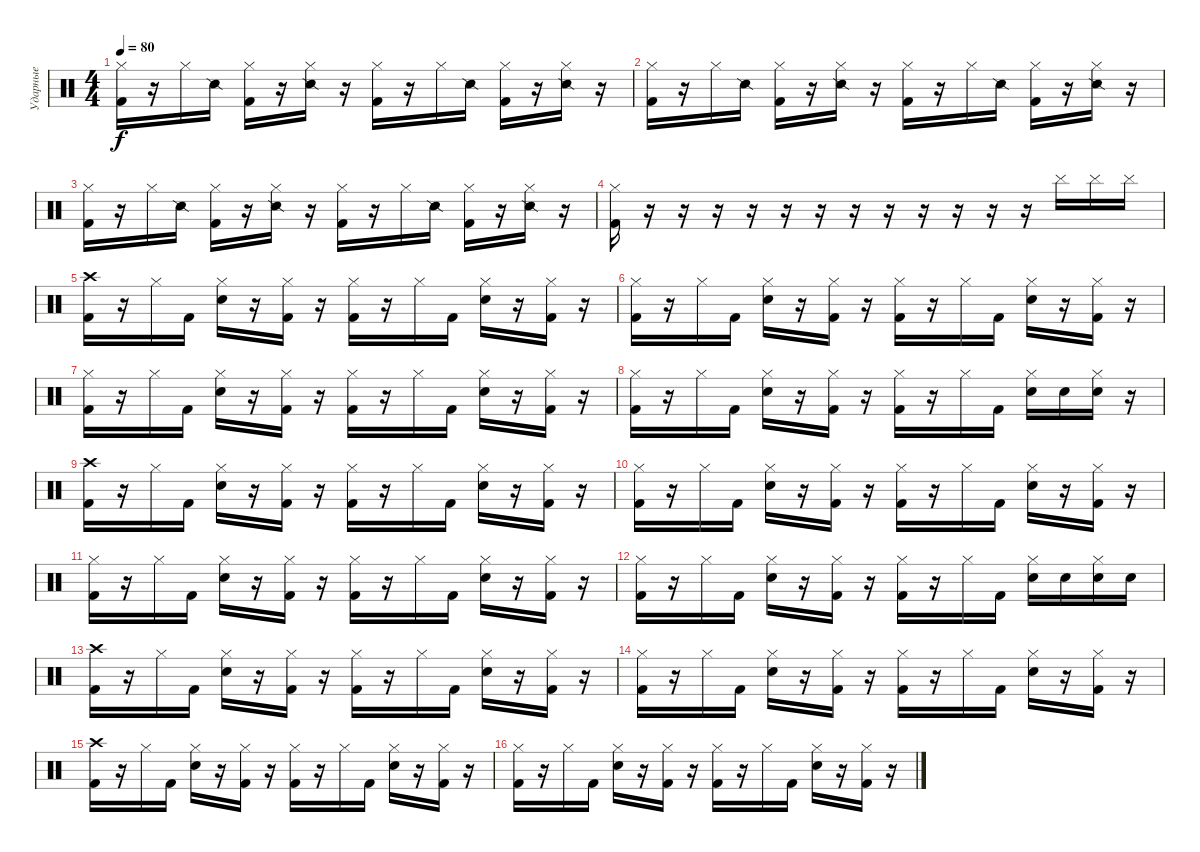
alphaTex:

\track ("Ударные" "Ударные") {instrument percussion}
\staff {score}
\articulation defaults
\ts (4 4)
\tempo 80
\clef neutral
\ks c
("Kick (hit) 2" "Hi-Hat (closed)").16{dy f} r.16 "Hi-Hat (closed)".16 "Snare (side stick) 2".16 ("Kick (hit) 2" "Hi-Hat (closed)").16 r.16 ("Snare (side stick) 2" "Hi-Hat (closed)").16 r.16 ("Kick (hit) 2" "Hi-Hat (closed)").16 r.16 "Hi-Hat (closed)".16 "Snare (side stick) 2".16 ("Kick (hit) 2" "Hi-Hat (closed)").16 r.16 ("Snare (side stick) 2" "Hi-Hat (closed)").16 r.16 |
("Kick (hit) 2" "Hi-Hat (closed)").16 r.16 "Hi-Hat (closed)".16 "Snare (side stick) 2".16 ("Kick (hit) 2" "Hi-Hat (closed)").16 r.16 ("Snare (side stick) 2" "Hi-Hat (closed)").16 r.16 ("Kick (hit) 2" "Hi-Hat (closed)").16 r.16 "Hi-Hat (closed)".16 "Snare (side stick) 2".16 ("Kick (hit) 2" "Hi-Hat (closed)").16 r.16 ("Snare (side stick) 2" "Hi-Hat (closed)").16 r.16 |
("Kick (hit) 2" "Hi-Hat (closed)").16 r.16 "Hi-Hat (closed)".16 "Snare (side stick) 2".16 ("Kick (hit) 2" "Hi-Hat (closed)").16 r.16 ("Snare (side stick) 2" "Hi-Hat (closed)").16 r.16 ("Kick (hit) 2" "Hi-Hat (closed)").16 r.16 "Hi-Hat (closed)".16 "Snare (side stick) 2".16 ("Kick (hit) 2" "Hi-Hat (closed)").16 r.16 ("Snare (side stick) 2" "Hi-Hat (closed)").16 r.16 |
("Kick (hit) 2" "Hi-Hat (closed)").16 r.16 r.16 r.16 r.16 r.16 r.16 r.16 r.16 r.16 r.16 r.16 r.16 "Cymbal (hit)".16 "Cymbal (hit)".16 "Cymbal (hit)".16 |
("Kick (hit) 2" "Crash high (hit)").16 r.16 "Hi-Hat (closed)".16 "Kick (hit) 2".16 ("Electric Snare (hit)" "Hi-Hat (closed)").16 r.16 ("Kick (hit) 2" "Hi-Hat (closed)").16 r.16 ("Kick (hit) 2" "Hi-Hat (closed)").16 r.16 "Hi-Hat (closed)".16 "Kick (hit) 2".16 ("Electric Snare (hit)" "Hi-Hat (closed)").16 r.16 ("Kick (hit) 2" "Hi-Hat (closed)").16 r.16 |
("Kick (hit) 2" "Hi-Hat (closed)").16 r.16 "Hi-Hat (closed)".16 "Kick (hit) 2".16 ("Electric Snare (hit)" "Hi-Hat (closed)").16 r.16 ("Kick (hit) 2" "Hi-Hat (closed)").16 r.16 ("Kick (hit) 2" "Hi-Hat (closed)").16 r.16 "Hi-Hat (closed)".16 "Kick (hit) 2".16 ("Electric Snare (hit)" "Hi-Hat (closed)").16 r.16 ("Kick (hit) 2" "Hi-Hat (closed)").16 r.16 |
("Kick (hit) 2" "Hi-Hat (closed)").16 r.16 "Hi-Hat (closed)".16 "Kick (hit) 2".16 ("Electric Snare (hit)" "Hi-Hat (closed)").16 r.16 ("Kick (hit) 2" "Hi-Hat (closed)").16 r.16 ("Kick (hit) 2" "Hi-Hat (closed)").16 r.16 "Hi-Hat (closed)".16 "Kick (hit) 2".16 ("Electric Snare (hit)" "Hi-Hat (closed)").16 r.16 ("Kick (hit) 2" "Hi-Hat (closed)").16 r.16 |
("Kick (hit) 2" "Hi-Hat (closed)").16 r.16 "Hi-Hat (closed)".16 "Kick (hit) 2".16 ("Electric Snare (hit)" "Hi-Hat (closed)").16 r.16 ("Kick (hit) 2" "Hi-Hat (closed)").16 r.16 ("Kick (hit) 2" "Hi-Hat (closed)").16 r.16 "Hi-Hat (closed)".16 "Kick (hit) 2".16 ("Electric Snare (hit)" "Hi-Hat (closed)").16 "Electric Snare (hit)".16 ("Electric Snare (hit)" "Hi-Hat (closed)").16 r.16 |
("Kick (hit) 2" "Crash high (hit)").16 r.16 "Hi-Hat (closed)".16 "Kick (hit) 2".16 ("Electric Snare (hit)" "Hi-Hat (closed)").16 r.16 ("Kick (hit) 2" "Hi-Hat (closed)").16 r.16 ("Kick (hit) 2" "Hi-Hat (closed)").16 r.16 "Hi-Hat (closed)".16 "Kick (hit) 2".16 ("Electric Snare (hit)" "Hi-Hat (closed)").16 r.16 ("Kick (hit) 2" "Hi-Hat (closed)").16 r.16 |
("Kick (hit) 2" "Hi-Hat (closed)").16 r.16 "Hi-Hat (closed)".16 "Kick (hit) 2".16 ("Electric Snare (hit)" "Hi-Hat (closed)").16 r.16 ("Kick (hit) 2" "Hi-Hat (closed)").16 r.16 ("Kick (hit) 2" "Hi-Hat (closed)").16 r.16 "Hi-Hat (closed)".16 "Kick (hit) 2".16 ("Electric Snare (hit)" "Hi-Hat (closed)").16 r.16 ("Kick (hit) 2" "Hi-Hat (closed)").16 r.16 |
("Kick (hit) 2" "Hi-Hat (closed)").16 r.16 "Hi-Hat (closed)".16 "Kick (hit) 2".16 ("Electric Snare (hit)" "Hi-Hat (closed)").16 r.16 ("Kick (hit) 2" "Hi-Hat (closed)").16 r.16 ("Kick (hit) 2" "Hi-Hat (closed)").16 r.16 "Hi-Hat (closed)".16 "Kick (hit) 2".16 ("Electric Snare (hit)" "Hi-Hat (closed)").16 r.16 ("Kick (hit) 2" "Hi-Hat (closed)").16 r.16 |
("Kick (hit) 2" "Hi-Hat (closed)").16 r.16 "Hi-Hat (closed)".16 "Kick (hit) 2".16 ("Electric Snare (hit)" "Hi-Hat (closed)").16 r.16 ("Kick (hit) 2" "Hi-Hat (closed)").16 r.16 ("Kick (hit) 2" "Hi-Hat (closed)").16 r.16 "Hi-Hat (closed)".16 "Kick (hit) 2".16 ("Electric Snare (hit)" "Hi-Hat (closed)").16 "Electric Snare (hit)".16 ("Electric Snare (hit)" "Hi-Hat (closed)").16 "Electric Snare (hit)".16 |
("Kick (hit) 2" "Crash high (hit)").16 r.16 "Hi-Hat (closed)".16 "Kick (hit) 2".16 ("Electric Snare (hit)" "Hi-Hat (closed)").16 r.16 ("Kick (hit) 2" "Hi-Hat (closed)").16 r.16 ("Kick (hit) 2" "Hi-Hat (closed)").16 r.16 "Hi-Hat (closed)".16 "Kick (hit) 2".16 ("Electric Snare (hit)" "Hi-Hat (closed)").16 r.16 ("Kick (hit) 2" "Hi-Hat (closed)").16 r.16 |
("Kick (hit) 2" "Hi-Hat (closed)").16 r.16 "Hi-Hat (closed)".16 "Kick (hit) 2".16 ("Electric Snare (hit)" "Hi-Hat (closed)").16 r.16 ("Kick (hit) 2" "Hi-Hat (closed)").16 r.16 ("Kick (hit) 2" "Hi-Hat (closed)").16 r.16 "Hi-Hat (closed)".16 "Kick (hit) 2".16 ("Electric Snare (hit)" "Hi-Hat (closed)").16 r.16 ("Kick (hit) 2" "Hi-Hat (closed)").16 r.16 |
("Kick (hit) 2" "Crash high (hit)").16 r.16 "Hi-Hat (closed)".16 "Kick (hit) 2".16 ("Electric Snare (hit)" "Hi-Hat (closed)").16 r.16 ("Kick (hit) 2" "Hi-Hat (closed)").16 r.16 ("Kick (hit) 2" "Hi-Hat (closed)").16 r.16 "Hi-Hat (closed)".16 "Kick (hit) 2".16 ("Electric Snare (hit)" "Hi-Hat (closed)").16 r.16 ("Kick (hit) 2" "Hi-Hat (closed)").16 r.16 |
("Kick (hit) 2" "Hi-Hat (closed)").16 r.16 "Hi-Hat (closed)".16 "Kick (hit) 2".16 ("Electric Snare (hit)" "Hi-Hat (closed)").16 r.16 ("Kick (hit) 2" "Hi-Hat (closed)").16 r.16 ("Kick (hit) 2" "Hi-Hat (closed)").16 r.16 "Hi-Hat (closed)".16 "Kick (hit) 2".16 ("Electric Snare (hit)" "Hi-Hat (closed)").16 r.16 ("Kick (hit) 2" "Hi-Hat (closed)").16 r.16
